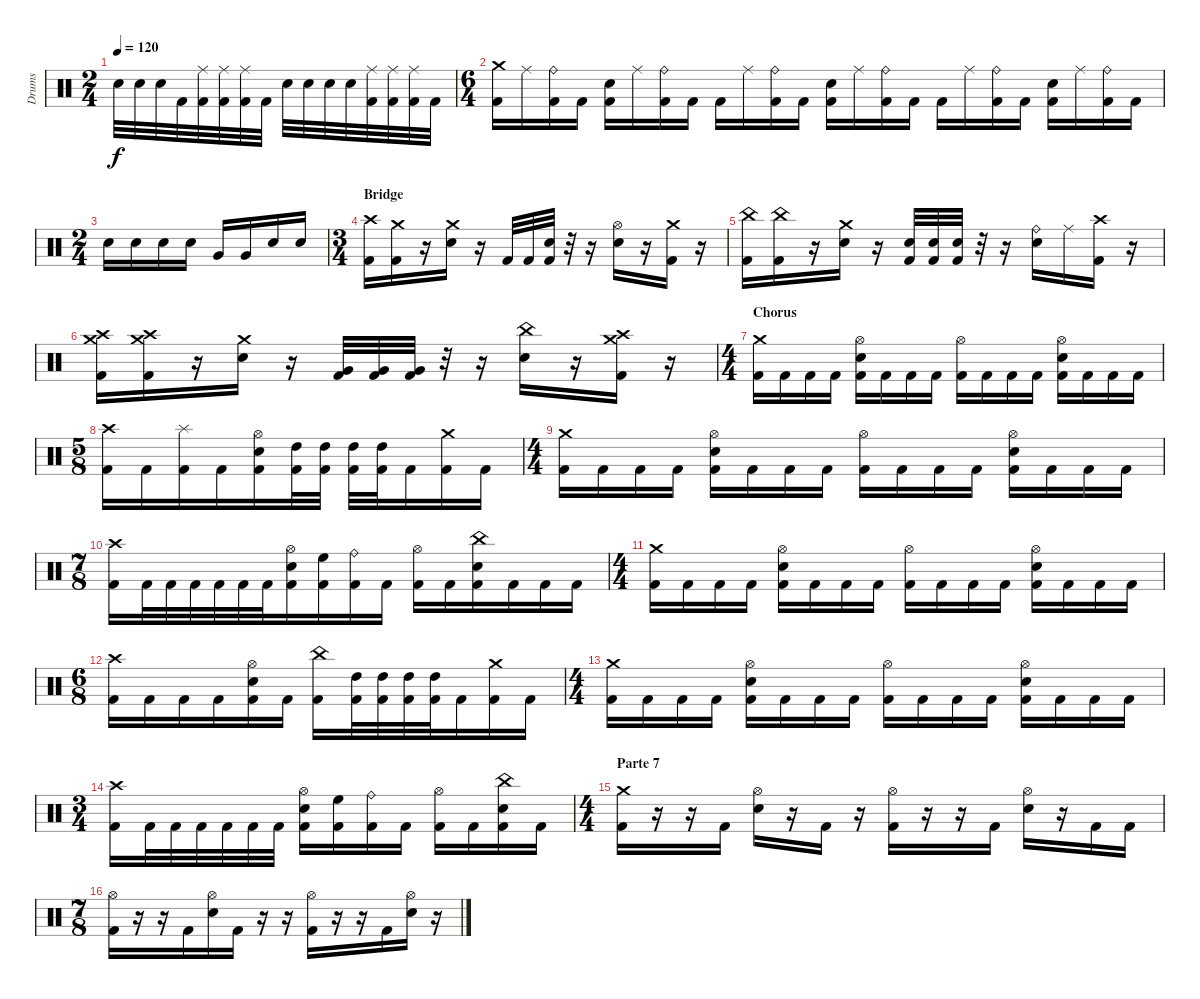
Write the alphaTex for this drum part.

\track ("Drums" "Drums") {instrument percussion}
\staff {score}
\articulation defaults
\ts (2 4)
\tempo 120
\clef neutral
\ks c "Electric Snare (hit)".32{dy f} "Electric Snare (hit)".32 "Electric Snare (hit)".32 "Kick (hit) 2".32
("Ride (middle)" "Kick (hit) 2").32 ("Ride (middle)" "Kick (hit) 2").32 ("Ride (middle)" "Kick (hit) 2").32 "Kick (hit) 2".32 "Electric Snare (hit)".32 "Electric Snare (hit)".32 "Electric Snare (hit)".32 "Electric Snare (hit)".32 ("Ride (middle)" "Kick (hit) 2").32 ("Ride (middle)" "Kick (hit) 2").32 ("Ride (middle)" "Kick (hit) 2").32 "Kick (hit) 2".32 |
\ts (6 4)
("Crash medium (hit)" "Kick (hit) 2").16 "Ride (middle)".16 ("Ride (bell)" "Kick (hit) 2").16 "Kick (hit) 2".16 ("Electric Snare (hit)" "Kick (hit) 2").16 "Ride (middle)".16 ("Ride (bell)" "Kick (hit) 2").16 "Kick (hit) 2".16 "Kick (hit) 2".16 "Ride (middle)".16 ("Ride (bell)" "Kick (hit) 2").16 "Kick (hit) 2".16 ("Electric Snare (hit)" "Kick (hit) 2").16 "Ride (middle)".16 ("Ride (bell)" "Kick (hit) 2").16 "Kick (hit) 2".16 "Kick (hit) 2".16 "Ride (middle)".16 ("Ride (bell)" "Kick (hit) 2").16 "Kick (hit) 2".16 ("Electric Snare (hit)" "Kick (hit) 2").16 "Ride (middle)".16 ("Ride (bell)" "Kick (hit) 2").16 "Kick (hit) 2".16 |
\ts (2 4)
"Electric Snare (hit)".16 "Electric Snare (hit)".16 "Electric Snare (hit)".16 "Electric Snare (hit)".16 "Very Low Tom (hit)".16 "Very Low Tom (hit)".16 "Electric Snare (hit)".16 "Electric Snare (hit)".16 |
\ts (3 4)
\section ("" "Bridge")
("Crash high (hit)" "Kick (hit) 2").16 ("Crash medium (hit)" "Kick (hit) 2").16 r.16 ("Crash medium (hit)" "Electric Snare (hit)").16 r.16 "Kick (hit) 2".32 "Kick (hit) 2".32 ("Electric Snare (hit)" "Kick (hit) 2").32 r.32 r.16 ("Hi-Hat (open)" "Electric Snare (hit)").16 r.16 ("Crash medium (hit)" "Kick (hit) 2").16 r.16 |
("China (hit)" "Kick (hit) 2").16 ("China (hit)" "Kick (hit) 2").16 r.16 ("Crash medium (hit)" "Electric Snare (hit)").16 r.16 ("Electric Snare (hit)" "Kick (hit) 2").32 ("Electric Snare (hit)" "Kick (hit) 2").32 ("Electric Snare (hit)" "Kick (hit) 2").32 r.32 r.16 ("Ride (bell)" "Electric Snare (hit)").16 "Ride (middle)".16 ("Crash high (hit)" "Kick (hit) 2").16 r.16 |
("Crash high (hit)" "Crash medium (hit)" "Kick (hit) 2").16 ("Crash high (hit)" "Crash medium (hit)" "Kick (hit) 2").16 r.16 ("Crash medium (hit)" "Electric Snare (hit)").16 r.16 ("Very Low Tom (hit)" "Kick (hit) 2").32 ("Very Low Tom (hit)" "Kick (hit) 2").32 ("Very Low Tom (hit)" "Kick (hit) 2").32 r.32 r.16 ("China (hit)" "Electric Snare (hit)").16 r.16 ("Crash high (hit)" "Crash medium (hit)" "Kick (hit) 2").16 r.16 |
\ts (4 4)
\section ("" "Chorus")
("Crash medium (hit)" "Kick (hit) 2").16 "Kick (hit) 2".16 "Kick (hit) 2".16 "Kick (hit) 2".16 ("Hi-Hat (open)" "Electric Snare (hit)" "Kick (hit) 2").16 "Kick (hit) 2".16 "Kick (hit) 2".16 "Kick (hit) 2".16 ("Hi-Hat (open)" "Kick (hit) 2").16 "Kick (hit) 2".16 "Kick (hit) 2".16 "Kick (hit) 2".16 ("Hi-Hat (open)" "Electric Snare (hit)" "Kick (hit) 2").16 "Kick (hit) 2".16 "Kick (hit) 2".16 "Kick (hit) 2".16 |
\ts (5 8)
("Crash high (hit)" "Kick (hit) 2").16 "Kick (hit) 2".16 ("Splash (hit)" "Kick (hit) 2").16 "Kick (hit) 2".16 ("Hi-Hat (open)" "Electric Snare (hit)" "Kick (hit) 2").16 ("High Tom (hit)" "Kick (hit) 2").32 ("High Tom (hit)" "Kick (hit) 2").32 ("High Tom (hit)" "Kick (hit) 2").32 ("High Tom (hit)" "Kick (hit) 2").32 "Kick (hit) 2".16 ("Crash medium (hit)" "Kick (hit) 2").16 "Kick (hit) 2".16 |
\ts (4 4)
("Crash medium (hit)" "Kick (hit) 2").16 "Kick (hit) 2".16 "Kick (hit) 2".16 "Kick (hit) 2".16 ("Hi-Hat (open)" "Electric Snare (hit)" "Kick (hit) 2").16 "Kick (hit) 2".16 "Kick (hit) 2".16 "Kick (hit) 2".16 ("Hi-Hat (open)" "Kick (hit) 2").16 "Kick (hit) 2".16 "Kick (hit) 2".16 "Kick (hit) 2".16 ("Hi-Hat (open)" "Electric Snare (hit)" "Kick (hit) 2").16 "Kick (hit) 2".16 "Kick (hit) 2".16 "Kick (hit) 2".16 |
\ts (7 8)
("Crash high (hit)" "Kick (hit) 2").16 "Kick (hit) 2".32 "Kick (hit) 2".32 "Kick (hit) 2".32 "Kick (hit) 2".32 "Kick (hit) 2".32 "Kick (hit) 2".32 ("Hi-Hat (open)" "Electric Snare (hit)" "Kick (hit) 2").16 ("High Floor Tom (hit)" "Kick (hit) 2").16 ("Ride (bell)" "Kick (hit) 2").16 "Kick (hit) 2".16 ("Hi-Hat (open)" "Kick (hit) 2").16 "Kick (hit) 2".16 ("China (hit)" "Electric Snare (hit)" "Kick (hit) 2").16 "Kick (hit) 2".16 "Kick (hit) 2".16 "Kick (hit) 2".16 |
\ts (4 4)
("Crash medium (hit)" "Kick (hit) 2").16 "Kick (hit) 2".16 "Kick (hit) 2".16 "Kick (hit) 2".16 ("Hi-Hat (open)" "Electric Snare (hit)" "Kick (hit) 2").16 "Kick (hit) 2".16 "Kick (hit) 2".16 "Kick (hit) 2".16 ("Hi-Hat (open)" "Kick (hit) 2").16 "Kick (hit) 2".16 "Kick (hit) 2".16 "Kick (hit) 2".16 ("Hi-Hat (open)" "Electric Snare (hit)" "Kick (hit) 2").16 "Kick (hit) 2".16 "Kick (hit) 2".16 "Kick (hit) 2".16 |
\ts (6 8)
("Crash high (hit)" "Kick (hit) 2").16 "Kick (hit) 2".16 "Kick (hit) 2".16 "Kick (hit) 2".16 ("Hi-Hat (open)" "Electric Snare (hit)" "Kick (hit) 2").16 "Kick (hit) 2".16 ("China (hit)" "Kick (hit) 2").16 ("High Tom (hit)" "Kick (hit) 2").32 ("High Tom (hit)" "Kick (hit) 2").32 ("High Tom (hit)" "Kick (hit) 2").32 ("High Tom (hit)" "Kick (hit) 2").32 "Kick (hit) 2".16 ("Crash medium (hit)" "Kick (hit) 2").16 "Kick (hit) 2".16 |
\ts (4 4)
("Crash medium (hit)" "Kick (hit) 2").16 "Kick (hit) 2".16 "Kick (hit) 2".16 "Kick (hit) 2".16 ("Hi-Hat (open)" "Electric Snare (hit)" "Kick (hit) 2").16 "Kick (hit) 2".16 "Kick (hit) 2".16 "Kick (hit) 2".16 ("Hi-Hat (open)" "Kick (hit) 2").16 "Kick (hit) 2".16 "Kick (hit) 2".16 "Kick (hit) 2".16 ("Hi-Hat (open)" "Electric Snare (hit)" "Kick (hit) 2").16 "Kick (hit) 2".16 "Kick (hit) 2".16 "Kick (hit) 2".16 |
\ts (3 4)
("Crash high (hit)" "Kick (hit) 2").16 "Kick (hit) 2".32 "Kick (hit) 2".32 "Kick (hit) 2".32 "Kick (hit) 2".32 "Kick (hit) 2".32 "Kick (hit) 2".32 ("Hi-Hat (open)" "Electric Snare (hit)" "Kick (hit) 2").16 ("High Floor Tom (hit)" "Kick (hit) 2").16 ("Ride (bell)" "Kick (hit) 2").16 "Kick (hit) 2".16 ("Hi-Hat (open)" "Kick (hit) 2").16 "Kick (hit) 2".16 ("China (hit)" "Electric Snare (hit)" "Kick (hit) 2").16 "Kick (hit) 2".16 |
\ts (4 4)
\section ("" "Parte 7")
("Crash medium (hit)" "Kick (hit) 2").16 r.16 r.16 "Kick (hit) 2".16 ("Hi-Hat (open)" "Electric Snare (hit)").16 r.16 "Kick (hit) 2".16 r.16 ("Hi-Hat (open)" "Kick (hit) 2").16 r.16 r.16 "Kick (hit) 2".16 ("Hi-Hat (open)" "Electric Snare (hit)").16 r.16 "Kick (hit) 2".16 "Kick (hit) 2".16 |
\ts (7 8)
("Hi-Hat (open)" "Kick (hit) 2").16 r.16 r.16 "Kick (hit) 2".16 ("Hi-Hat (open)" "Electric Snare (hit)").16 "Kick (hit) 2".16 r.16 r.16 ("Hi-Hat (open)" "Kick (hit) 2").16 r.16 r.16 "Kick (hit) 2".16 ("Hi-Hat (open)" "Electric Snare (hit)").16 r.16
